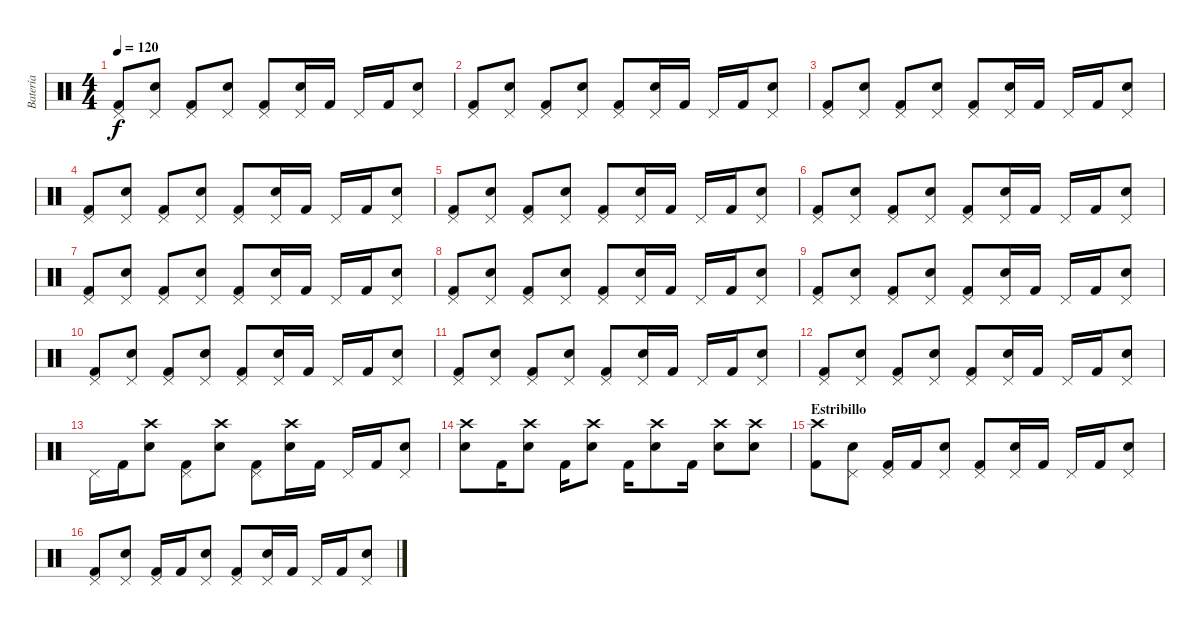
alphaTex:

\track ("Batería" "Batería") {instrument percussion}
\staff {score}
\articulation defaults
\ts (4 4)
\tempo 120
\clef neutral
\ks c
("Pedal Hi-Hat (hit)" "Kick (hit) 2").8{dy f} ("Pedal Hi-Hat (hit)" "Snare (hit) 2").8 ("Pedal Hi-Hat (hit)" "Kick (hit) 2").8 ("Pedal Hi-Hat (hit)" "Snare (hit) 2").8 ("Pedal Hi-Hat (hit)" "Kick (hit) 2").8 ("Pedal Hi-Hat (hit)" "Snare (hit) 2").16 "Kick (hit) 2".16 "Pedal Hi-Hat (hit)".16 "Kick (hit) 2".16 ("Pedal Hi-Hat (hit)" "Snare (hit) 2").8 |
("Pedal Hi-Hat (hit)" "Kick (hit) 2").8 ("Pedal Hi-Hat (hit)" "Snare (hit) 2").8 ("Pedal Hi-Hat (hit)" "Kick (hit) 2").8 ("Pedal Hi-Hat (hit)" "Snare (hit) 2").8 ("Pedal Hi-Hat (hit)" "Kick (hit) 2").8 ("Pedal Hi-Hat (hit)" "Snare (hit) 2").16 "Kick (hit) 2".16 "Pedal Hi-Hat (hit)".16 "Kick (hit) 2".16 ("Pedal Hi-Hat (hit)" "Snare (hit) 2").8 |
("Pedal Hi-Hat (hit)" "Kick (hit) 2").8 ("Pedal Hi-Hat (hit)" "Snare (hit) 2").8 ("Pedal Hi-Hat (hit)" "Kick (hit) 2").8 ("Pedal Hi-Hat (hit)" "Snare (hit) 2").8 ("Pedal Hi-Hat (hit)" "Kick (hit) 2").8 ("Pedal Hi-Hat (hit)" "Snare (hit) 2").16 "Kick (hit) 2".16 "Pedal Hi-Hat (hit)".16 "Kick (hit) 2".16 ("Pedal Hi-Hat (hit)" "Snare (hit) 2").8 |
("Pedal Hi-Hat (hit)" "Kick (hit) 2").8 ("Pedal Hi-Hat (hit)" "Snare (hit) 2").8 ("Pedal Hi-Hat (hit)" "Kick (hit) 2").8 ("Pedal Hi-Hat (hit)" "Snare (hit) 2").8 ("Pedal Hi-Hat (hit)" "Kick (hit) 2").8 ("Pedal Hi-Hat (hit)" "Snare (hit) 2").16 "Kick (hit) 2".16 "Pedal Hi-Hat (hit)".16 "Kick (hit) 2".16 ("Pedal Hi-Hat (hit)" "Snare (hit) 2").8 |
("Pedal Hi-Hat (hit)" "Kick (hit) 2").8 ("Pedal Hi-Hat (hit)" "Snare (hit) 2").8 ("Pedal Hi-Hat (hit)" "Kick (hit) 2").8 ("Pedal Hi-Hat (hit)" "Snare (hit) 2").8 ("Pedal Hi-Hat (hit)" "Kick (hit) 2").8 ("Pedal Hi-Hat (hit)" "Snare (hit) 2").16 "Kick (hit) 2".16 "Pedal Hi-Hat (hit)".16 "Kick (hit) 2".16 ("Pedal Hi-Hat (hit)" "Snare (hit) 2").8 |
("Pedal Hi-Hat (hit)" "Kick (hit) 2").8 ("Pedal Hi-Hat (hit)" "Snare (hit) 2").8 ("Pedal Hi-Hat (hit)" "Kick (hit) 2").8 ("Pedal Hi-Hat (hit)" "Snare (hit) 2").8 ("Pedal Hi-Hat (hit)" "Kick (hit) 2").8 ("Pedal Hi-Hat (hit)" "Snare (hit) 2").16 "Kick (hit) 2".16 "Pedal Hi-Hat (hit)".16 "Kick (hit) 2".16 ("Pedal Hi-Hat (hit)" "Snare (hit) 2").8 |
("Pedal Hi-Hat (hit)" "Kick (hit) 2").8 ("Pedal Hi-Hat (hit)" "Snare (hit) 2").8 ("Pedal Hi-Hat (hit)" "Kick (hit) 2").8 ("Pedal Hi-Hat (hit)" "Snare (hit) 2").8 ("Pedal Hi-Hat (hit)" "Kick (hit) 2").8 ("Pedal Hi-Hat (hit)" "Snare (hit) 2").16 "Kick (hit) 2".16 "Pedal Hi-Hat (hit)".16 "Kick (hit) 2".16 ("Pedal Hi-Hat (hit)" "Snare (hit) 2").8 |
("Pedal Hi-Hat (hit)" "Kick (hit) 2").8 ("Pedal Hi-Hat (hit)" "Snare (hit) 2").8 ("Pedal Hi-Hat (hit)" "Kick (hit) 2").8 ("Pedal Hi-Hat (hit)" "Snare (hit) 2").8 ("Pedal Hi-Hat (hit)" "Kick (hit) 2").8 ("Pedal Hi-Hat (hit)" "Snare (hit) 2").16 "Kick (hit) 2".16 "Pedal Hi-Hat (hit)".16 "Kick (hit) 2".16 ("Pedal Hi-Hat (hit)" "Snare (hit) 2").8 |
("Pedal Hi-Hat (hit)" "Kick (hit) 2").8 ("Pedal Hi-Hat (hit)" "Snare (hit) 2").8 ("Pedal Hi-Hat (hit)" "Kick (hit) 2").8 ("Pedal Hi-Hat (hit)" "Snare (hit) 2").8 ("Pedal Hi-Hat (hit)" "Kick (hit) 2").8 ("Pedal Hi-Hat (hit)" "Snare (hit) 2").16 "Kick (hit) 2".16 "Pedal Hi-Hat (hit)".16 "Kick (hit) 2".16 ("Pedal Hi-Hat (hit)" "Snare (hit) 2").8 |
("Pedal Hi-Hat (hit)" "Kick (hit) 2").8 ("Pedal Hi-Hat (hit)" "Snare (hit) 2").8 ("Pedal Hi-Hat (hit)" "Kick (hit) 2").8 ("Pedal Hi-Hat (hit)" "Snare (hit) 2").8 ("Pedal Hi-Hat (hit)" "Kick (hit) 2").8 ("Pedal Hi-Hat (hit)" "Snare (hit) 2").16 "Kick (hit) 2".16 "Pedal Hi-Hat (hit)".16 "Kick (hit) 2".16 ("Pedal Hi-Hat (hit)" "Snare (hit) 2").8 |
("Pedal Hi-Hat (hit)" "Kick (hit) 2").8 ("Pedal Hi-Hat (hit)" "Snare (hit) 2").8 ("Pedal Hi-Hat (hit)" "Kick (hit) 2").8 ("Pedal Hi-Hat (hit)" "Snare (hit) 2").8 ("Pedal Hi-Hat (hit)" "Kick (hit) 2").8 ("Pedal Hi-Hat (hit)" "Snare (hit) 2").16 "Kick (hit) 2".16 "Pedal Hi-Hat (hit)".16 "Kick (hit) 2".16 ("Pedal Hi-Hat (hit)" "Snare (hit) 2").8 |
("Pedal Hi-Hat (hit)" "Kick (hit) 2").8 ("Pedal Hi-Hat (hit)" "Snare (hit) 2").8 ("Pedal Hi-Hat (hit)" "Kick (hit) 2").8 ("Pedal Hi-Hat (hit)" "Snare (hit) 2").8 ("Pedal Hi-Hat (hit)" "Kick (hit) 2").8 ("Pedal Hi-Hat (hit)" "Snare (hit) 2").16 "Kick (hit) 2".16 "Pedal Hi-Hat (hit)".16 "Kick (hit) 2".16 ("Pedal Hi-Hat (hit)" "Snare (hit) 2").8 |
"Pedal Hi-Hat (hit)".16 "Kick (hit) 2".16 ("Crash high (hit)" "Snare (hit) 2").8 ("Pedal Hi-Hat (hit)" "Kick (hit) 2").8 ("Crash high (hit)" "Snare (hit) 2").8 ("Pedal Hi-Hat (hit)" "Kick (hit) 2").8 ("Crash high (hit)" "Snare (hit) 2").16 "Kick (hit) 2".16 "Pedal Hi-Hat (hit)".16 "Kick (hit) 2".16 ("Pedal Hi-Hat (hit)" "Snare (hit) 2").8 |
("Crash high (hit)" "Snare (hit) 2").8 "Kick (hit) 2".16 ("Crash high (hit)" "Snare (hit) 2").8 "Kick (hit) 2".16 ("Crash high (hit)" "Snare (hit) 2").8 "Kick (hit) 2".16 ("Crash high (hit)" "Snare (hit) 2").8 "Kick (hit) 2".16 ("Crash high (hit)" "Snare (hit) 2").8 ("Crash high (hit)" "Snare (hit) 2").8 |
\section ("" "Estribillo")
("Crash high (hit)" "Kick (hit) 2").8 ("Pedal Hi-Hat (hit)" "Snare (hit) 2").8 ("Pedal Hi-Hat (hit)" "Kick (hit) 2").16 "Kick (hit) 2".16 ("Pedal Hi-Hat (hit)" "Snare (hit) 2").8 ("Pedal Hi-Hat (hit)" "Kick (hit) 2").8 ("Pedal Hi-Hat (hit)" "Snare (hit) 2").16 "Kick (hit) 2".16 "Pedal Hi-Hat (hit)".16 "Kick (hit) 2".16 ("Pedal Hi-Hat (hit)" "Snare (hit) 2").8 |
("Pedal Hi-Hat (hit)" "Kick (hit) 2").8 ("Pedal Hi-Hat (hit)" "Snare (hit) 2").8 ("Pedal Hi-Hat (hit)" "Kick (hit) 2").16 "Kick (hit) 2".16 ("Pedal Hi-Hat (hit)" "Snare (hit) 2").8 ("Pedal Hi-Hat (hit)" "Kick (hit) 2").8 ("Pedal Hi-Hat (hit)" "Snare (hit) 2").16 "Kick (hit) 2".16 "Pedal Hi-Hat (hit)".16 "Kick (hit) 2".16 ("Pedal Hi-Hat (hit)" "Snare (hit) 2").8
